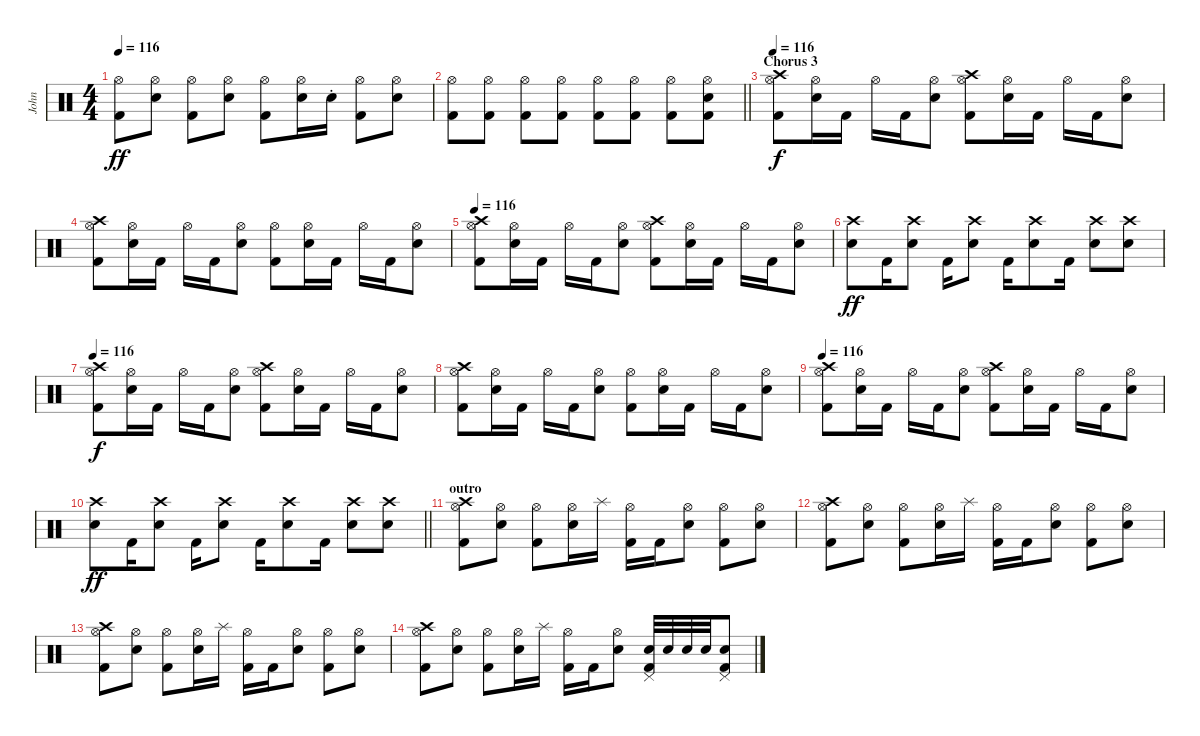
\track ("John" "John") {instrument percussion}
\staff {score}
\articulation defaults
\ts (4 4)
\tempo 116
\clef neutral
\ks c
("Kick (hit) 2" "Hi-Hat (open)").8{dy ff} ("Snare (hit) 2" "Hi-Hat (open)").8 ("Kick (hit) 2" "Hi-Hat (open)").8 ("Snare (hit) 2" "Hi-Hat (open)").8 ("Kick (hit) 2" "Hi-Hat (open)").8 ("Snare (hit) 2" "Hi-Hat (open)").16 "Snare (hit) 2"{st}.16 ("Kick (hit) 2" "Hi-Hat (open)").8 ("Snare (hit) 2" "Hi-Hat (open)").8 |
\barLineRight lightlight
("Kick (hit) 2" "Hi-Hat (open)").8 ("Kick (hit) 2" "Hi-Hat (open)").8 ("Kick (hit) 2" "Hi-Hat (open)").8 ("Kick (hit) 2" "Hi-Hat (open)").8 ("Kick (hit) 2" "Hi-Hat (open)").8 ("Kick (hit) 2" "Hi-Hat (open)").8 ("Kick (hit) 2" "Hi-Hat (open)").8 ("Snare (hit) 2" "Kick (hit) 2" "Hi-Hat (open)").8 |
\section ("" "Chorus 3")
\tempo 116
("Crash high (hit)" "Kick (hit) 2" "Hi-Hat (open)").8{dy f} ("Snare (hit) 2" "Hi-Hat (open)").16 "Kick (hit) 2".16 "Hi-Hat (open)".16 "Kick (hit) 2".16 ("Snare (hit) 2" "Hi-Hat (open)").8 ("Crash high (hit)" "Kick (hit) 2" "Hi-Hat (open)").8 ("Snare (hit) 2" "Hi-Hat (open)").16 "Kick (hit) 2".16 "Hi-Hat (open)".16 "Kick (hit) 2".16 ("Snare (hit) 2" "Hi-Hat (open)").8 |
("Crash high (hit)" "Kick (hit) 2" "Hi-Hat (open)").8 ("Snare (hit) 2" "Hi-Hat (open)").16 "Kick (hit) 2".16 "Hi-Hat (open)".16 "Kick (hit) 2".16 ("Snare (hit) 2" "Hi-Hat (open)").8 ("Kick (hit) 2" "Hi-Hat (open)").8 ("Snare (hit) 2" "Hi-Hat (open)").16 "Kick (hit) 2".16 "Hi-Hat (open)".16 "Kick (hit) 2".16 ("Snare (hit) 2" "Hi-Hat (open)").8 |
\tempo 116
("Crash high (hit)" "Kick (hit) 2" "Hi-Hat (open)").8 ("Snare (hit) 2" "Hi-Hat (open)").16 "Kick (hit) 2".16 "Hi-Hat (open)".16 "Kick (hit) 2".16 ("Snare (hit) 2" "Hi-Hat (open)").8 ("Crash high (hit)" "Kick (hit) 2" "Hi-Hat (open)").8 ("Snare (hit) 2" "Hi-Hat (open)").16 "Kick (hit) 2".16 "Hi-Hat (open)".16 "Kick (hit) 2".16 ("Snare (hit) 2" "Hi-Hat (open)").8 |
("Crash high (hit)" "Snare (hit) 2").8{dy ff} "Kick (hit) 2".16 ("Crash high (hit)" "Snare (hit) 2").8 "Kick (hit) 2".16 ("Crash high (hit)" "Snare (hit) 2").8 "Kick (hit) 2".16 ("Crash high (hit)" "Snare (hit) 2").8 "Kick (hit) 2".16 ("Crash high (hit)" "Snare (hit) 2").8 ("Crash high (hit)" "Snare (hit) 2").8 |
\tempo 116
("Crash high (hit)" "Kick (hit) 2" "Hi-Hat (open)").8{dy f} ("Snare (hit) 2" "Hi-Hat (open)").16 "Kick (hit) 2".16 "Hi-Hat (open)".16 "Kick (hit) 2".16 ("Snare (hit) 2" "Hi-Hat (open)").8 ("Crash high (hit)" "Kick (hit) 2" "Hi-Hat (open)").8 ("Snare (hit) 2" "Hi-Hat (open)").16 "Kick (hit) 2".16 "Hi-Hat (open)".16 "Kick (hit) 2".16 ("Snare (hit) 2" "Hi-Hat (open)").8 |
("Crash high (hit)" "Kick (hit) 2" "Hi-Hat (open)").8 ("Snare (hit) 2" "Hi-Hat (open)").16 "Kick (hit) 2".16 "Hi-Hat (open)".16 "Kick (hit) 2".16 ("Snare (hit) 2" "Hi-Hat (open)").8 ("Kick (hit) 2" "Hi-Hat (open)").8 ("Snare (hit) 2" "Hi-Hat (open)").16 "Kick (hit) 2".16 "Hi-Hat (open)".16 "Kick (hit) 2".16 ("Snare (hit) 2" "Hi-Hat (open)").8 |
\tempo 116
("Crash high (hit)" "Kick (hit) 2" "Hi-Hat (open)").8 ("Snare (hit) 2" "Hi-Hat (open)").16 "Kick (hit) 2".16 "Hi-Hat (open)".16 "Kick (hit) 2".16 ("Snare (hit) 2" "Hi-Hat (open)").8 ("Crash high (hit)" "Kick (hit) 2" "Hi-Hat (open)").8 ("Snare (hit) 2" "Hi-Hat (open)").16 "Kick (hit) 2".16 "Hi-Hat (open)".16 "Kick (hit) 2".16 ("Snare (hit) 2" "Hi-Hat (open)").8 |
\barLineRight lightlight
("Crash high (hit)" "Snare (hit) 2").8{dy ff} "Kick (hit) 2".16 ("Crash high (hit)" "Snare (hit) 2").8 "Kick (hit) 2".16 ("Crash high (hit)" "Snare (hit) 2").8 "Kick (hit) 2".16 ("Crash high (hit)" "Snare (hit) 2").8 "Kick (hit) 2".16 ("Crash high (hit)" "Snare (hit) 2").8 ("Crash high (hit)" "Snare (hit) 2").8 |
\section ("" "outro")
("Crash high (hit)" "Kick (hit) 2" "Hi-Hat (open)").8 ("Snare (hit) 2" "Hi-Hat (open)").8 ("Kick (hit) 2" "Hi-Hat (open)").8 ("Snare (hit) 2" "Hi-Hat (open)").16 "Splash (hit)".16 ("Kick (hit) 2" "Hi-Hat (open)").16 "Kick (hit) 2".16 ("Snare (hit) 2" "Hi-Hat (open)").8 ("Kick (hit) 2" "Hi-Hat (open)").8 ("Snare (hit) 2" "Hi-Hat (open)").8 |
("Crash high (hit)" "Kick (hit) 2" "Hi-Hat (open)").8 ("Snare (hit) 2" "Hi-Hat (open)").8 ("Kick (hit) 2" "Hi-Hat (open)").8 ("Snare (hit) 2" "Hi-Hat (open)").16 "Splash (hit)".16 ("Kick (hit) 2" "Hi-Hat (open)").16 "Kick (hit) 2".16 ("Snare (hit) 2" "Hi-Hat (open)").8 ("Kick (hit) 2" "Hi-Hat (open)").8 ("Snare (hit) 2" "Hi-Hat (open)").8 |
("Crash high (hit)" "Kick (hit) 2" "Hi-Hat (open)").8 ("Snare (hit) 2" "Hi-Hat (open)").8 ("Kick (hit) 2" "Hi-Hat (open)").8 ("Snare (hit) 2" "Hi-Hat (open)").16 "Splash (hit)".16 ("Kick (hit) 2" "Hi-Hat (open)").16 "Kick (hit) 2".16 ("Snare (hit) 2" "Hi-Hat (open)").8 ("Kick (hit) 2" "Hi-Hat (open)").8 ("Snare (hit) 2" "Hi-Hat (open)").8 |
("Crash high (hit)" "Kick (hit) 2" "Hi-Hat (open)").8 ("Snare (hit) 2" "Hi-Hat (open)").8 ("Kick (hit) 2" "Hi-Hat (open)").8 ("Snare (hit) 2" "Hi-Hat (open)").16 "Splash (hit)".16 ("Kick (hit) 2" "Hi-Hat (open)").16 "Kick (hit) 2".16 ("Snare (hit) 2" "Hi-Hat (open)").8 ("Snare (hit) 2" "Kick (hit) 2" "Pedal Hi-Hat (hit)").32 "Snare (hit) 2".32 "Snare (hit) 2".32 "Snare (hit) 2".32 ("Snare (hit) 2" "Kick (hit) 2" "Pedal Hi-Hat (hit)").8
